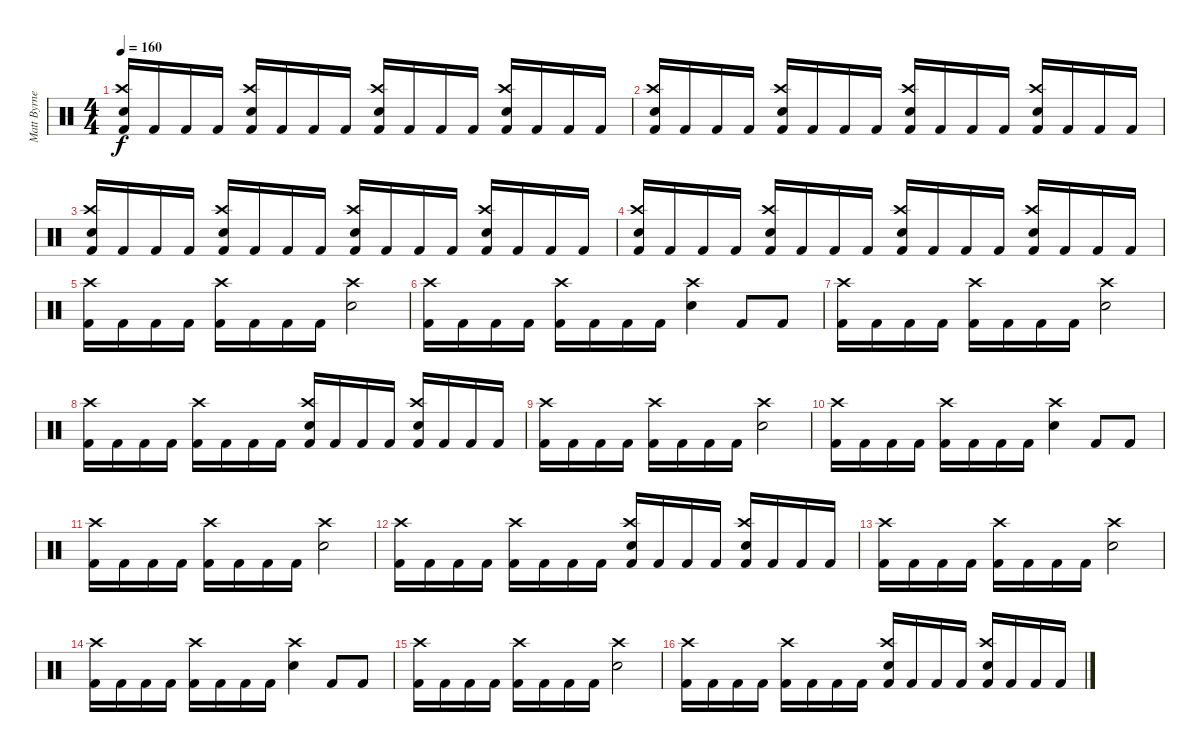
\track ("Matt Byrne" "Matt Byrne") {instrument percussion}
\staff {score}
\articulation defaults
\ts (4 4)
\tempo 160
\clef neutral
\ks c
("Kick (hit) 2" "Crash high (hit)" "Snare (hit) 2").16{dy f} "Kick (hit) 2".16 "Kick (hit) 2".16 "Kick (hit) 2".16 ("Kick (hit) 2" "Crash high (hit)" "Snare (hit) 2").16 "Kick (hit) 2".16 "Kick (hit) 2".16 "Kick (hit) 2".16 ("Kick (hit) 2" "Crash high (hit)" "Snare (hit) 2").16 "Kick (hit) 2".16 "Kick (hit) 2".16 "Kick (hit) 2".16 ("Kick (hit) 2" "Crash high (hit)" "Snare (hit) 2").16 "Kick (hit) 2".16 "Kick (hit) 2".16 "Kick (hit) 2".16 |
("Kick (hit) 2" "Crash high (hit)" "Snare (hit) 2").16 "Kick (hit) 2".16 "Kick (hit) 2".16 "Kick (hit) 2".16 ("Kick (hit) 2" "Crash high (hit)" "Snare (hit) 2").16 "Kick (hit) 2".16 "Kick (hit) 2".16 "Kick (hit) 2".16 ("Kick (hit) 2" "Crash high (hit)" "Snare (hit) 2").16 "Kick (hit) 2".16 "Kick (hit) 2".16 "Kick (hit) 2".16 ("Kick (hit) 2" "Crash high (hit)" "Snare (hit) 2").16 "Kick (hit) 2".16 "Kick (hit) 2".16 "Kick (hit) 2".16 |
("Kick (hit) 2" "Crash high (hit)" "Snare (hit) 2").16 "Kick (hit) 2".16 "Kick (hit) 2".16 "Kick (hit) 2".16 ("Kick (hit) 2" "Crash high (hit)" "Snare (hit) 2").16 "Kick (hit) 2".16 "Kick (hit) 2".16 "Kick (hit) 2".16 ("Kick (hit) 2" "Crash high (hit)" "Snare (hit) 2").16 "Kick (hit) 2".16 "Kick (hit) 2".16 "Kick (hit) 2".16 ("Kick (hit) 2" "Crash high (hit)" "Snare (hit) 2").16 "Kick (hit) 2".16 "Kick (hit) 2".16 "Kick (hit) 2".16 |
("Kick (hit) 2" "Crash high (hit)" "Snare (hit) 2").16 "Kick (hit) 2".16 "Kick (hit) 2".16 "Kick (hit) 2".16 ("Kick (hit) 2" "Crash high (hit)" "Snare (hit) 2").16 "Kick (hit) 2".16 "Kick (hit) 2".16 "Kick (hit) 2".16 ("Kick (hit) 2" "Crash high (hit)" "Snare (hit) 2").16 "Kick (hit) 2".16 "Kick (hit) 2".16 "Kick (hit) 2".16 ("Kick (hit) 2" "Crash high (hit)" "Snare (hit) 2").16 "Kick (hit) 2".16 "Kick (hit) 2".16 "Kick (hit) 2".16 |
\section ("" "")
("Kick (hit) 2" "Crash high (hit)").16 "Kick (hit) 2".16 "Kick (hit) 2".16 "Kick (hit) 2".16 ("Kick (hit) 2" "Crash high (hit)").16 "Kick (hit) 2".16 "Kick (hit) 2".16 "Kick (hit) 2".16 ("Crash high (hit)" "Snare (hit) 2").2 |
("Kick (hit) 2" "Crash high (hit)").16 "Kick (hit) 2".16 "Kick (hit) 2".16 "Kick (hit) 2".16 ("Kick (hit) 2" "Crash high (hit)").16 "Kick (hit) 2".16 "Kick (hit) 2".16 "Kick (hit) 2".16 ("Crash high (hit)" "Snare (hit) 2").4 "Kick (hit) 2".8 "Kick (hit) 2".8 |
("Kick (hit) 2" "Crash high (hit)").16 "Kick (hit) 2".16 "Kick (hit) 2".16 "Kick (hit) 2".16 ("Kick (hit) 2" "Crash high (hit)").16 "Kick (hit) 2".16 "Kick (hit) 2".16 "Kick (hit) 2".16 ("Crash high (hit)" "Snare (hit) 2").2 |
("Kick (hit) 2" "Crash high (hit)").16 "Kick (hit) 2".16 "Kick (hit) 2".16 "Kick (hit) 2".16 ("Kick (hit) 2" "Crash high (hit)").16 "Kick (hit) 2".16 "Kick (hit) 2".16 "Kick (hit) 2".16 ("Kick (hit) 2" "Snare (hit) 2" "Crash high (hit)").16 "Kick (hit) 2".16 "Kick (hit) 2".16 "Kick (hit) 2".16 ("Kick (hit) 2" "Snare (hit) 2" "Crash high (hit)").16 "Kick (hit) 2".16 "Kick (hit) 2".16 "Kick (hit) 2".16 |
("Kick (hit) 2" "Crash high (hit)").16 "Kick (hit) 2".16 "Kick (hit) 2".16 "Kick (hit) 2".16 ("Kick (hit) 2" "Crash high (hit)").16 "Kick (hit) 2".16 "Kick (hit) 2".16 "Kick (hit) 2".16 ("Crash high (hit)" "Snare (hit) 2").2 |
("Kick (hit) 2" "Crash high (hit)").16 "Kick (hit) 2".16 "Kick (hit) 2".16 "Kick (hit) 2".16 ("Kick (hit) 2" "Crash high (hit)").16 "Kick (hit) 2".16 "Kick (hit) 2".16 "Kick (hit) 2".16 ("Crash high (hit)" "Snare (hit) 2").4 "Kick (hit) 2".8 "Kick (hit) 2".8 |
("Kick (hit) 2" "Crash high (hit)").16 "Kick (hit) 2".16 "Kick (hit) 2".16 "Kick (hit) 2".16 ("Kick (hit) 2" "Crash high (hit)").16 "Kick (hit) 2".16 "Kick (hit) 2".16 "Kick (hit) 2".16 ("Crash high (hit)" "Snare (hit) 2").2 |
("Kick (hit) 2" "Crash high (hit)").16 "Kick (hit) 2".16 "Kick (hit) 2".16 "Kick (hit) 2".16 ("Kick (hit) 2" "Crash high (hit)").16 "Kick (hit) 2".16 "Kick (hit) 2".16 "Kick (hit) 2".16 ("Kick (hit) 2" "Snare (hit) 2" "Crash high (hit)").16 "Kick (hit) 2".16 "Kick (hit) 2".16 "Kick (hit) 2".16 ("Kick (hit) 2" "Snare (hit) 2" "Crash high (hit)").16 "Kick (hit) 2".16 "Kick (hit) 2".16 "Kick (hit) 2".16 |
("Kick (hit) 2" "Crash high (hit)").16 "Kick (hit) 2".16 "Kick (hit) 2".16 "Kick (hit) 2".16 ("Kick (hit) 2" "Crash high (hit)").16 "Kick (hit) 2".16 "Kick (hit) 2".16 "Kick (hit) 2".16 ("Crash high (hit)" "Snare (hit) 2").2 |
("Kick (hit) 2" "Crash high (hit)").16 "Kick (hit) 2".16 "Kick (hit) 2".16 "Kick (hit) 2".16 ("Kick (hit) 2" "Crash high (hit)").16 "Kick (hit) 2".16 "Kick (hit) 2".16 "Kick (hit) 2".16 ("Crash high (hit)" "Snare (hit) 2").4 "Kick (hit) 2".8 "Kick (hit) 2".8 |
("Kick (hit) 2" "Crash high (hit)").16 "Kick (hit) 2".16 "Kick (hit) 2".16 "Kick (hit) 2".16 ("Kick (hit) 2" "Crash high (hit)").16 "Kick (hit) 2".16 "Kick (hit) 2".16 "Kick (hit) 2".16 ("Crash high (hit)" "Snare (hit) 2").2 |
("Kick (hit) 2" "Crash high (hit)").16 "Kick (hit) 2".16 "Kick (hit) 2".16 "Kick (hit) 2".16 ("Kick (hit) 2" "Crash high (hit)").16 "Kick (hit) 2".16 "Kick (hit) 2".16 "Kick (hit) 2".16 ("Kick (hit) 2" "Snare (hit) 2" "Crash high (hit)").16 "Kick (hit) 2".16 "Kick (hit) 2".16 "Kick (hit) 2".16 ("Kick (hit) 2" "Snare (hit) 2" "Crash high (hit)").16 "Kick (hit) 2".16 "Kick (hit) 2".16 "Kick (hit) 2".16
